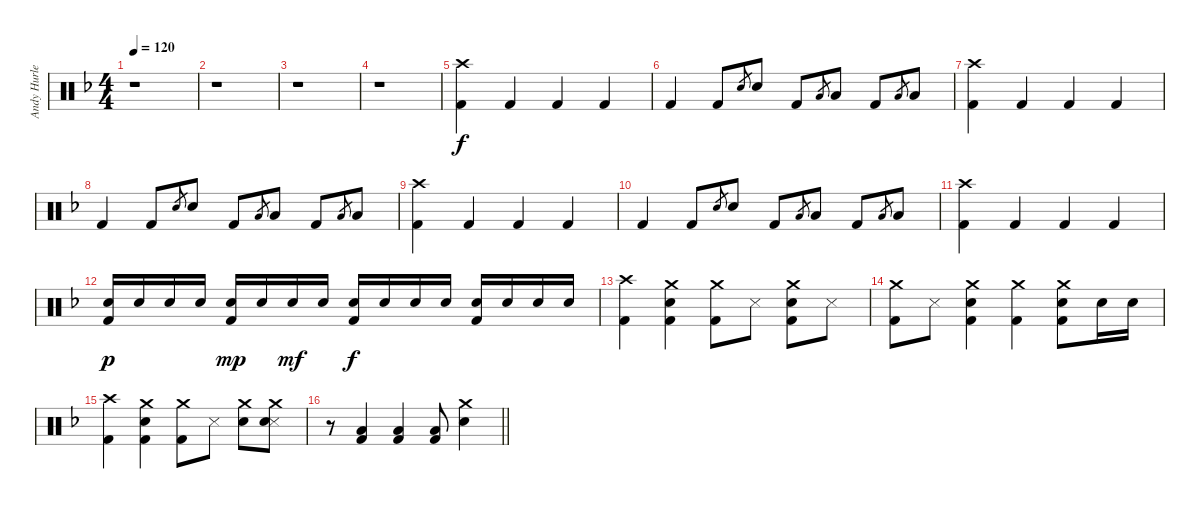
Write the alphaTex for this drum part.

\track ("Andy Hurley" "Andy Hurle") {instrument percussion}
\staff {score}
\articulation defaults
\ts (4 4)
\tempo 120
\clef neutral
\ks dminor
r.1{dy f} |
r.1 |
r.1 |
r.1 |
("Crash high (hit)" "Kick (hit) 2").4 "Kick (hit) 2".4 "Kick (hit) 2".4 "Kick (hit) 2".4 |
"Kick (hit) 2".4 "Kick (hit) 2".8 "Snare (hit) 2".8{gr} "Snare (hit) 2".8 "Kick (hit) 2".8 "Low Tom (hit)".8{gr} "Low Tom (hit)".8 "Kick (hit) 2".8 "Low Floor Tom (hit)".8{gr} "Low Floor Tom (hit)".8 |
("Crash high (hit)" "Kick (hit) 2").4 "Kick (hit) 2".4 "Kick (hit) 2".4 "Kick (hit) 2".4 |
"Kick (hit) 2".4 "Kick (hit) 2".8 "Snare (hit) 2".8{gr} "Snare (hit) 2".8 "Kick (hit) 2".8 "Low Tom (hit)".8{gr} "Low Tom (hit)".8 "Kick (hit) 2".8 "Low Floor Tom (hit)".8{gr} "Low Floor Tom (hit)".8 |
("Crash high (hit)" "Kick (hit) 2").4 "Kick (hit) 2".4 "Kick (hit) 2".4 "Kick (hit) 2".4 |
"Kick (hit) 2".4 "Kick (hit) 2".8 "Snare (hit) 2".8{gr} "Snare (hit) 2".8 "Kick (hit) 2".8 "Low Tom (hit)".8{gr} "Low Tom (hit)".8 "Kick (hit) 2".8 "Low Floor Tom (hit)".8{gr} "Low Floor Tom (hit)".8 |
("Crash high (hit)" "Kick (hit) 2").4 "Kick (hit) 2".4 "Kick (hit) 2".4 "Kick (hit) 2".4 |
("Snare (hit) 2" "Kick (hit) 2").16{dy p} "Snare (hit) 2".16 "Snare (hit) 2".16 "Snare (hit) 2".16 ("Snare (hit) 2" "Kick (hit) 2").16{dy mp} "Snare (hit) 2".16 "Snare (hit) 2".16{dy mf} "Snare (hit) 2".16 ("Snare (hit) 2" "Kick (hit) 2").16{dy f} "Snare (hit) 2".16 "Snare (hit) 2".16 "Snare (hit) 2".16 ("Snare (hit) 2" "Kick (hit) 2").16 "Snare (hit) 2".16 "Snare (hit) 2".16 "Snare (hit) 2".16 |
("Crash high (hit)" "Kick (hit) 2").4 ("Crash medium (hit)" "Snare (hit) 2" "Kick (hit) 2").4 ("Crash medium (hit)" "Kick (hit) 2").8 "Snare (side stick) 3".8 ("Crash medium (hit)" "Snare (hit) 2" "Kick (hit) 2").8 "Snare (side stick) 3".8 |
("Crash medium (hit)" "Kick (hit) 2").8 "Snare (side stick) 3".8 ("Crash medium (hit)" "Snare (hit) 2" "Kick (hit) 2").4 ("Crash medium (hit)" "Kick (hit) 2").4 ("Crash medium (hit)" "Snare (hit) 2" "Kick (hit) 2").8 "Snare (hit) 2".16 "Snare (hit) 2".16 |
("Crash high (hit)" "Kick (hit) 2").4 ("Crash medium (hit)" "Snare (hit) 2" "Kick (hit) 2").4 ("Crash medium (hit)" "Kick (hit) 2").8 "Snare (side stick) 3".8 ("Crash medium (hit)" "Snare (hit) 2").8 ("Crash medium (hit)" "Snare (side stick) 3" "Snare (hit) 2").8 |
\barLineRight lightlight
r.8 ("Low Floor Tom (hit)" "Kick (hit) 2").4 ("Low Floor Tom (hit)" "Kick (hit) 2").4 ("Low Floor Tom (hit)" "Kick (hit) 2").8 ("Crash medium (hit)" "Snare (hit) 2").4
